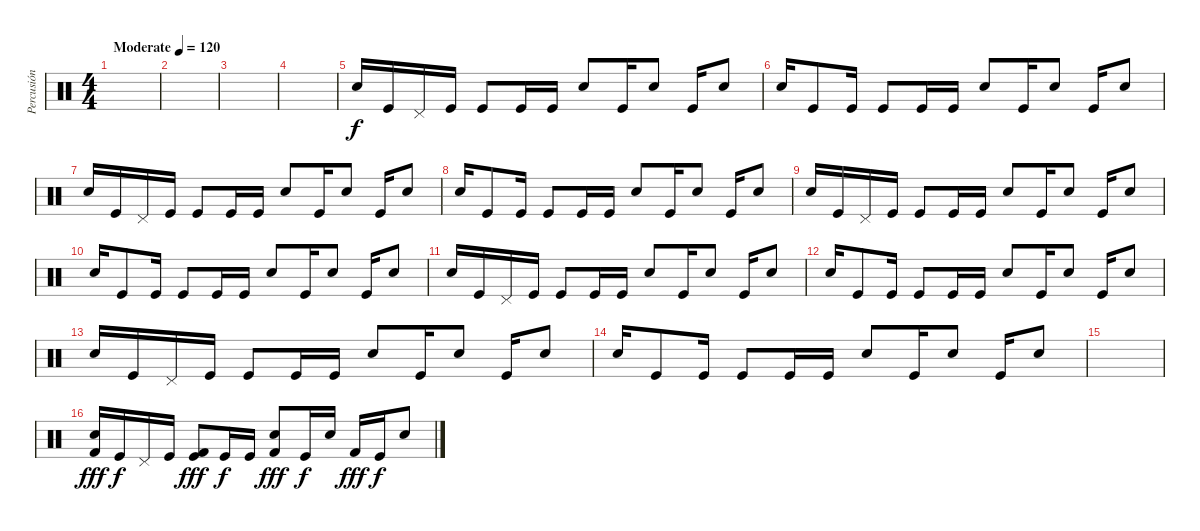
\track ("Percusión" "Percusión") {instrument percussion}
\staff {score}
\articulation defaults
\ts (4 4)
\tempo (120 "Moderate")
\clef neutral
\ks c
|
|
|
|
"Electric Snare (hit)".16 "Kick (hit)".16 "Pedal Hi-Hat (hit)".16 "Kick (hit)".16 "Kick (hit)".8 "Kick (hit)".16 "Kick (hit)".16 "Electric Snare (hit)".8 "Kick (hit)".16 "Electric Snare (hit)".8 "Kick (hit)".16 "Electric Snare (hit)".8 |
"Electric Snare (hit)".16 "Kick (hit)".8 "Kick (hit)".16 "Kick (hit)".8 "Kick (hit)".16 "Kick (hit)".16 "Electric Snare (hit)".8 "Kick (hit)".16 "Electric Snare (hit)".8 "Kick (hit)".16 "Electric Snare (hit)".8 |
"Electric Snare (hit)".16 "Kick (hit)".16 "Pedal Hi-Hat (hit)".16 "Kick (hit)".16 "Kick (hit)".8 "Kick (hit)".16 "Kick (hit)".16 "Electric Snare (hit)".8 "Kick (hit)".16 "Electric Snare (hit)".8 "Kick (hit)".16 "Electric Snare (hit)".8 |
"Electric Snare (hit)".16 "Kick (hit)".8 "Kick (hit)".16 "Kick (hit)".8 "Kick (hit)".16 "Kick (hit)".16 "Electric Snare (hit)".8 "Kick (hit)".16 "Electric Snare (hit)".8 "Kick (hit)".16 "Electric Snare (hit)".8 |
"Electric Snare (hit)".16 "Kick (hit)".16 "Pedal Hi-Hat (hit)".16 "Kick (hit)".16 "Kick (hit)".8 "Kick (hit)".16 "Kick (hit)".16 "Electric Snare (hit)".8 "Kick (hit)".16 "Electric Snare (hit)".8 "Kick (hit)".16 "Electric Snare (hit)".8 |
"Electric Snare (hit)".16 "Kick (hit)".8 "Kick (hit)".16 "Kick (hit)".8 "Kick (hit)".16 "Kick (hit)".16 "Electric Snare (hit)".8 "Kick (hit)".16 "Electric Snare (hit)".8 "Kick (hit)".16 "Electric Snare (hit)".8 |
"Electric Snare (hit)".16 "Kick (hit)".16 "Pedal Hi-Hat (hit)".16 "Kick (hit)".16 "Kick (hit)".8 "Kick (hit)".16 "Kick (hit)".16 "Electric Snare (hit)".8 "Kick (hit)".16 "Electric Snare (hit)".8 "Kick (hit)".16 "Electric Snare (hit)".8 |
"Electric Snare (hit)".16 "Kick (hit)".8 "Kick (hit)".16 "Kick (hit)".8 "Kick (hit)".16 "Kick (hit)".16 "Electric Snare (hit)".8 "Kick (hit)".16 "Electric Snare (hit)".8 "Kick (hit)".16 "Electric Snare (hit)".8 |
"Electric Snare (hit)".16 "Kick (hit)".16 "Pedal Hi-Hat (hit)".16 "Kick (hit)".16 "Kick (hit)".8 "Kick (hit)".16 "Kick (hit)".16 "Electric Snare (hit)".8 "Kick (hit)".16 "Electric Snare (hit)".8 "Kick (hit)".16 "Electric Snare (hit)".8 |
"Electric Snare (hit)".16 "Kick (hit)".8 "Kick (hit)".16 "Kick (hit)".8 "Kick (hit)".16 "Kick (hit)".16 "Electric Snare (hit)".8 "Kick (hit)".16 "Electric Snare (hit)".8 "Kick (hit)".16 "Electric Snare (hit)".8 |
|
("Electric Snare (hit)" "Kick (hit) 2").16{dy fff} "Kick (hit)".16{dy f} "Pedal Hi-Hat (hit)".16 "Kick (hit)".16 ("Kick (hit)" "Kick (hit) 2").8{dy fff} "Kick (hit)".16{dy f} "Kick (hit)".16 ("Electric Snare (hit)" "Kick (hit) 2").8{dy fff} "Kick (hit)".16{dy f} "Electric Snare (hit)".16 "Kick (hit) 2".16{dy fff} "Kick (hit)".16{dy f} "Electric Snare (hit)".8
